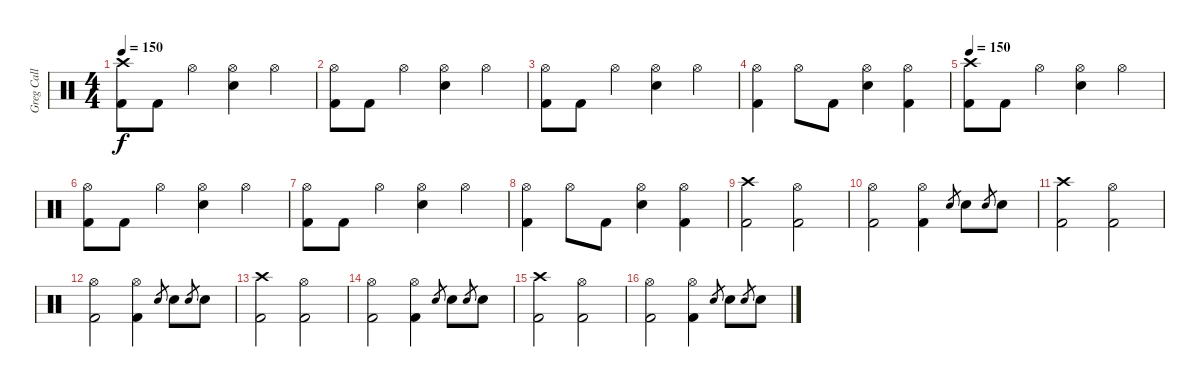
\track ("Greg Call" "Greg Call") {instrument percussion}
\staff {score}
\articulation defaults
\ts (4 4)
\tempo 150
\clef neutral
\ks c
("Crash high (hit)" "Kick (hit) 2").8{dy f} "Kick (hit) 2".8 "Hi-Hat (open)".4 ("Hi-Hat (open)" "Snare (hit) 2").4 "Hi-Hat (open)".4 |
("Hi-Hat (open)" "Kick (hit) 2").8 "Kick (hit) 2".8 "Hi-Hat (open)".4 ("Hi-Hat (open)" "Snare (hit) 2").4 "Hi-Hat (open)".4 |
("Hi-Hat (open)" "Kick (hit) 2").8 "Kick (hit) 2".8 "Hi-Hat (open)".4 ("Hi-Hat (open)" "Snare (hit) 2").4 "Hi-Hat (open)".4 |
("Hi-Hat (open)" "Kick (hit) 2").4 "Hi-Hat (open)".8 "Kick (hit) 2".8 ("Hi-Hat (open)" "Snare (hit) 2").4 ("Hi-Hat (open)" "Kick (hit) 2").4 |
\tempo 150
("Crash high (hit)" "Kick (hit) 2").8 "Kick (hit) 2".8 "Hi-Hat (open)".4 ("Hi-Hat (open)" "Snare (hit) 2").4 "Hi-Hat (open)".4 |
("Hi-Hat (open)" "Kick (hit) 2").8 "Kick (hit) 2".8 "Hi-Hat (open)".4 ("Hi-Hat (open)" "Snare (hit) 2").4 "Hi-Hat (open)".4 |
("Hi-Hat (open)" "Kick (hit) 2").8 "Kick (hit) 2".8 "Hi-Hat (open)".4 ("Hi-Hat (open)" "Snare (hit) 2").4 "Hi-Hat (open)".4 |
("Hi-Hat (open)" "Kick (hit) 2").4 "Hi-Hat (open)".8 "Kick (hit) 2".8 ("Hi-Hat (open)" "Snare (hit) 2").4 ("Hi-Hat (open)" "Kick (hit) 2").4 |
("Crash high (hit)" "Kick (hit) 2").2 ("Hi-Hat (open)" "Kick (hit) 2").2 |
("Hi-Hat (open)" "Kick (hit) 2").2 ("Hi-Hat (open)" "Kick (hit) 2").4 "Snare (hit) 2".8{gr} "Snare (hit) 2".8 "Snare (hit) 2".8{gr} "Snare (hit) 2".8 |
("Crash high (hit)" "Kick (hit) 2").2 ("Hi-Hat (open)" "Kick (hit) 2").2 |
("Hi-Hat (open)" "Kick (hit) 2").2 ("Hi-Hat (open)" "Kick (hit) 2").4 "Snare (hit) 2".8{gr} "Snare (hit) 2".8 "Snare (hit) 2".8{gr} "Snare (hit) 2".8 |
("Crash high (hit)" "Kick (hit) 2").2 ("Hi-Hat (open)" "Kick (hit) 2").2 |
("Hi-Hat (open)" "Kick (hit) 2").2 ("Hi-Hat (open)" "Kick (hit) 2").4 "Snare (hit) 2".8{gr} "Snare (hit) 2".8 "Snare (hit) 2".8{gr} "Snare (hit) 2".8 |
("Crash high (hit)" "Kick (hit) 2").2 ("Hi-Hat (open)" "Kick (hit) 2").2 |
("Hi-Hat (open)" "Kick (hit) 2").2 ("Hi-Hat (open)" "Kick (hit) 2").4 "Snare (hit) 2".8{gr} "Snare (hit) 2".8 "Snare (hit) 2".8{gr} "Snare (hit) 2".8
